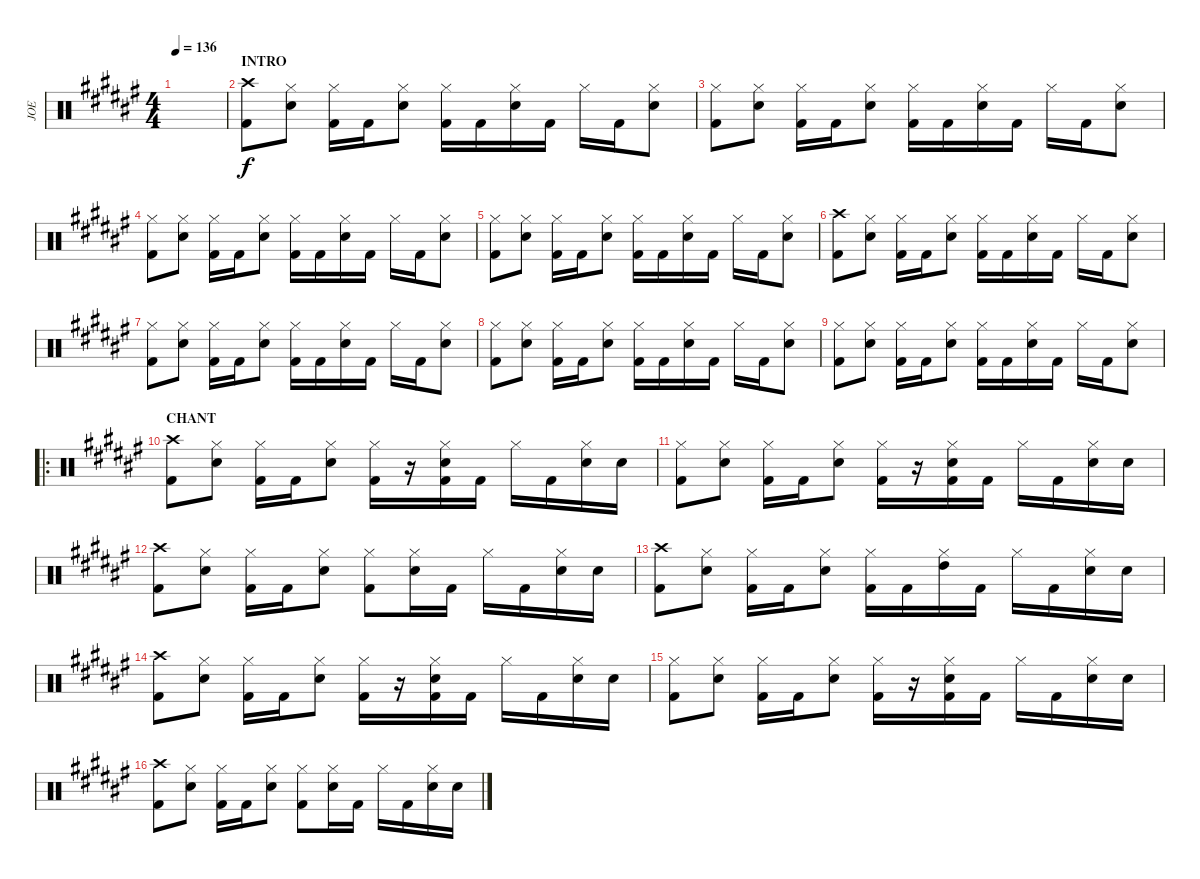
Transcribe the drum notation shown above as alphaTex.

\track ("JOE" "JOE") {instrument percussion}
\staff {score}
\articulation defaults
\ts (4 4)
\tempo 136
\clef neutral
\ks f#
|
\section ("" "INTRO")
("Crash high (hit)" "Kick (hit) 2").8 ("Hi-Hat (closed)" "Snare (hit) 2").8 ("Hi-Hat (closed)" "Kick (hit) 2").16 "Kick (hit) 2".16 ("Hi-Hat (closed)" "Snare (hit) 2").8 ("Hi-Hat (closed)" "Kick (hit) 2").16 "Kick (hit) 2".16 ("Hi-Hat (closed)" "Snare (hit) 2").16 "Kick (hit) 2".16 "Hi-Hat (closed)".16 "Kick (hit) 2".16 ("Hi-Hat (closed)" "Snare (hit) 2").8 |
("Hi-Hat (closed)" "Kick (hit) 2").8 ("Hi-Hat (closed)" "Snare (hit) 2").8 ("Hi-Hat (closed)" "Kick (hit) 2").16 "Kick (hit) 2".16 ("Hi-Hat (closed)" "Snare (hit) 2").8 ("Hi-Hat (closed)" "Kick (hit) 2").16 "Kick (hit) 2".16 ("Hi-Hat (closed)" "Snare (hit) 2").16 "Kick (hit) 2".16 "Hi-Hat (closed)".16 "Kick (hit) 2".16 ("Hi-Hat (closed)" "Snare (hit) 2").8 |
("Hi-Hat (closed)" "Kick (hit) 2").8 ("Hi-Hat (closed)" "Snare (hit) 2").8 ("Hi-Hat (closed)" "Kick (hit) 2").16 "Kick (hit) 2".16 ("Hi-Hat (closed)" "Snare (hit) 2").8 ("Hi-Hat (closed)" "Kick (hit) 2").16 "Kick (hit) 2".16 ("Hi-Hat (closed)" "Snare (hit) 2").16 "Kick (hit) 2".16 "Hi-Hat (closed)".16 "Kick (hit) 2".16 ("Hi-Hat (closed)" "Snare (hit) 2").8 |
("Hi-Hat (closed)" "Kick (hit) 2").8 ("Hi-Hat (closed)" "Snare (hit) 2").8 ("Hi-Hat (closed)" "Kick (hit) 2").16 "Kick (hit) 2".16 ("Hi-Hat (closed)" "Snare (hit) 2").8 ("Hi-Hat (closed)" "Kick (hit) 2").16 "Kick (hit) 2".16 ("Hi-Hat (closed)" "Snare (hit) 2").16 "Kick (hit) 2".16 "Hi-Hat (closed)".16 "Kick (hit) 2".16 ("Hi-Hat (closed)" "Snare (hit) 2").8 |
("Crash high (hit)" "Kick (hit) 2").8 ("Hi-Hat (closed)" "Snare (hit) 2").8 ("Hi-Hat (closed)" "Kick (hit) 2").16 "Kick (hit) 2".16 ("Hi-Hat (closed)" "Snare (hit) 2").8 ("Hi-Hat (closed)" "Kick (hit) 2").16 "Kick (hit) 2".16 ("Hi-Hat (closed)" "Snare (hit) 2").16 "Kick (hit) 2".16 "Hi-Hat (closed)".16 "Kick (hit) 2".16 ("Hi-Hat (closed)" "Snare (hit) 2").8 |
("Hi-Hat (closed)" "Kick (hit) 2").8 ("Hi-Hat (closed)" "Snare (hit) 2").8 ("Hi-Hat (closed)" "Kick (hit) 2").16 "Kick (hit) 2".16 ("Hi-Hat (closed)" "Snare (hit) 2").8 ("Hi-Hat (closed)" "Kick (hit) 2").16 "Kick (hit) 2".16 ("Hi-Hat (closed)" "Snare (hit) 2").16 "Kick (hit) 2".16 "Hi-Hat (closed)".16 "Kick (hit) 2".16 ("Hi-Hat (closed)" "Snare (hit) 2").8 |
("Hi-Hat (closed)" "Kick (hit) 2").8 ("Hi-Hat (closed)" "Snare (hit) 2").8 ("Hi-Hat (closed)" "Kick (hit) 2").16 "Kick (hit) 2".16 ("Hi-Hat (closed)" "Snare (hit) 2").8 ("Hi-Hat (closed)" "Kick (hit) 2").16 "Kick (hit) 2".16 ("Hi-Hat (closed)" "Snare (hit) 2").16 "Kick (hit) 2".16 "Hi-Hat (closed)".16 "Kick (hit) 2".16 ("Hi-Hat (closed)" "Snare (hit) 2").8 |
("Hi-Hat (closed)" "Kick (hit) 2").8 ("Hi-Hat (closed)" "Snare (hit) 2").8 ("Hi-Hat (closed)" "Kick (hit) 2").16 "Kick (hit) 2".16 ("Hi-Hat (closed)" "Snare (hit) 2").8 ("Hi-Hat (closed)" "Kick (hit) 2").16 "Kick (hit) 2".16 ("Hi-Hat (closed)" "Snare (hit) 2").16 "Kick (hit) 2".16 "Hi-Hat (closed)".16 "Kick (hit) 2".16 ("Hi-Hat (closed)" "Snare (hit) 2").8 |
\ro
\section ("" "CHANT")
("Crash high (hit)" "Kick (hit) 2").8 ("Hi-Hat (closed)" "Snare (hit) 2").8 ("Hi-Hat (closed)" "Kick (hit) 2").16 "Kick (hit) 2".16 ("Hi-Hat (closed)" "Snare (hit) 2").8 ("Hi-Hat (closed)" "Kick (hit) 2").16 r.16 ("Hi-Hat (closed)" "Snare (hit) 2" "Kick (hit) 2").16 "Kick (hit) 2".16 "Hi-Hat (closed)".16 "Kick (hit) 2".16 ("Hi-Hat (closed)" "Snare (hit) 2").16 "Snare (hit) 2".16 |
("Hi-Hat (closed)" "Kick (hit) 2").8 ("Hi-Hat (closed)" "Snare (hit) 2").8 ("Hi-Hat (closed)" "Kick (hit) 2").16 "Kick (hit) 2".16 ("Hi-Hat (closed)" "Snare (hit) 2").8 ("Hi-Hat (closed)" "Kick (hit) 2").16 r.16 ("Hi-Hat (closed)" "Kick (hit) 2" "Snare (hit) 2").16 "Kick (hit) 2".16 "Hi-Hat (closed)".16 "Kick (hit) 2".16 ("Hi-Hat (closed)" "Snare (hit) 2").16 "Snare (hit) 2".16 |
("Crash high (hit)" "Kick (hit) 2").8 ("Hi-Hat (closed)" "Snare (hit) 2").8 ("Hi-Hat (closed)" "Kick (hit) 2").16 "Kick (hit) 2".16 ("Hi-Hat (closed)" "Snare (hit) 2").8 ("Hi-Hat (closed)" "Kick (hit) 2").8 ("Hi-Hat (closed)" "Snare (hit) 2").16 "Kick (hit) 2".16 "Hi-Hat (closed)".16 "Kick (hit) 2".16 ("Hi-Hat (closed)" "Snare (hit) 2").16 "Snare (hit) 2".16 |
("Crash high (hit)" "Kick (hit) 2").8 ("Hi-Hat (closed)" "Snare (hit) 2").8 ("Hi-Hat (closed)" "Kick (hit) 2").16 "Kick (hit) 2".16 ("Hi-Hat (closed)" "Snare (hit) 2").8 ("Hi-Hat (closed)" "Kick (hit) 2").16 "Kick (hit) 2".16 ("Hi-Hat (closed)" "High Tom (hit)").16 "Kick (hit) 2".16 "Hi-Hat (closed)".16 "Kick (hit) 2".16 ("Hi-Hat (closed)" "Snare (hit) 2").16 "Snare (hit) 2".16 |
("Crash high (hit)" "Kick (hit) 2").8 ("Hi-Hat (closed)" "Snare (hit) 2").8 ("Hi-Hat (closed)" "Kick (hit) 2").16 "Kick (hit) 2".16 ("Hi-Hat (closed)" "Snare (hit) 2").8 ("Hi-Hat (closed)" "Kick (hit) 2").16 r.16 ("Hi-Hat (closed)" "Snare (hit) 2" "Kick (hit) 2").16 "Kick (hit) 2".16 "Hi-Hat (closed)".16 "Kick (hit) 2".16 ("Hi-Hat (closed)" "Snare (hit) 2").16 "Snare (hit) 2".16 |
("Hi-Hat (closed)" "Kick (hit) 2").8 ("Hi-Hat (closed)" "Snare (hit) 2").8 ("Hi-Hat (closed)" "Kick (hit) 2").16 "Kick (hit) 2".16 ("Hi-Hat (closed)" "Snare (hit) 2").8 ("Hi-Hat (closed)" "Kick (hit) 2").16 r.16 ("Hi-Hat (closed)" "Kick (hit) 2" "Snare (hit) 2").16 "Kick (hit) 2".16 "Hi-Hat (closed)".16 "Kick (hit) 2".16 ("Hi-Hat (closed)" "Snare (hit) 2").16 "Snare (hit) 2".16 |
("Crash high (hit)" "Kick (hit) 2").8 ("Hi-Hat (closed)" "Snare (hit) 2").8 ("Hi-Hat (closed)" "Kick (hit) 2").16 "Kick (hit) 2".16 ("Hi-Hat (closed)" "Snare (hit) 2").8 ("Hi-Hat (closed)" "Kick (hit) 2").8 ("Hi-Hat (closed)" "Snare (hit) 2").16 "Kick (hit) 2".16 "Hi-Hat (closed)".16 "Kick (hit) 2".16 ("Hi-Hat (closed)" "Snare (hit) 2").16 "Snare (hit) 2".16
